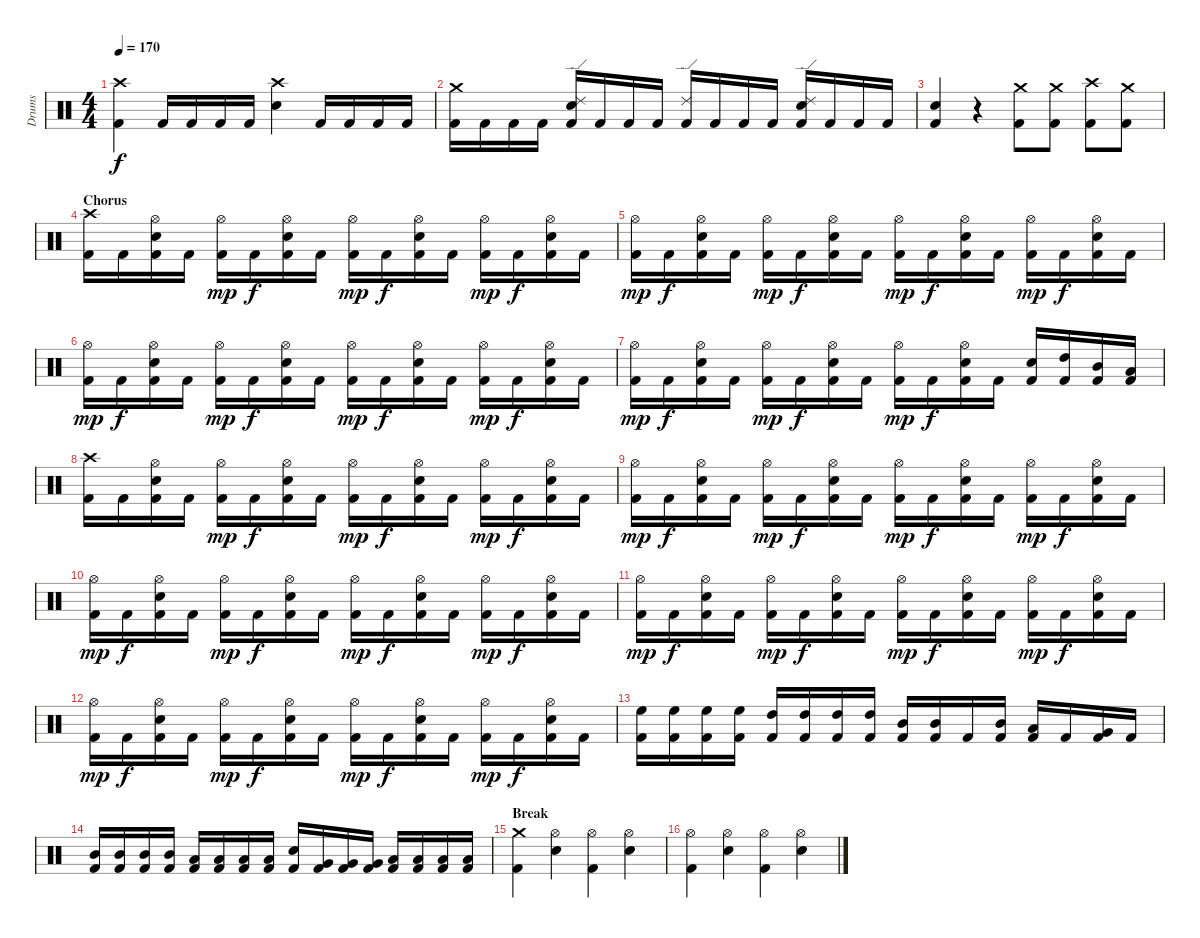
\track ("Drums" "Drums") {instrument percussion}
\staff {score}
\articulation defaults
\ts (4 4)
\tempo 170
\clef neutral
\ks c
("Kick (hit) 2" "Crash high (hit)").4{dy f} "Kick (hit) 2".16 "Kick (hit) 2".16 "Kick (hit) 2".16 "Kick (hit) 2".16 ("Electric Snare (hit)" "Crash high (hit)").4 "Kick (hit) 2".16 "Kick (hit) 2".16 "Kick (hit) 2".16 "Kick (hit) 2".16 |
("Kick (hit) 2" "Crash medium (hit)").16 "Kick (hit) 2".16 "Kick (hit) 2".16 "Kick (hit) 2".16 ("Kick (hit) 2" "Electric Snare (hit)" "Ride (edge) 2").16 "Kick (hit) 2".16 "Kick (hit) 2".16 "Kick (hit) 2".16 ("Kick (hit) 2" "Ride (edge) 2").16 "Kick (hit) 2".16 "Kick (hit) 2".16 "Kick (hit) 2".16 ("Kick (hit) 2" "Electric Snare (hit)" "Ride (edge) 2").16 "Kick (hit) 2".16 "Kick (hit) 2".16 "Kick (hit) 2".16 |
("Kick (hit) 2" "Electric Snare (hit)").4 r.4 ("Kick (hit) 2" "Crash medium (hit)").8 ("Kick (hit) 2" "Crash medium (hit)").8 ("Kick (hit) 2" "Crash high (hit)").8 ("Kick (hit) 2" "Crash medium (hit)").8 |
\section ("" "Chorus")
("Kick (hit) 2" "Crash high (hit)").16 "Kick (hit) 2".16 ("Kick (hit) 2" "Electric Snare (hit)" "Hi-Hat (open)").16 "Kick (hit) 2".16 ("Kick (hit) 2" "Hi-Hat (open)").16{dy mp} "Kick (hit) 2".16{dy f} ("Kick (hit) 2" "Electric Snare (hit)" "Hi-Hat (open)").16 "Kick (hit) 2".16 ("Kick (hit) 2" "Hi-Hat (open)").16{dy mp} "Kick (hit) 2".16{dy f} ("Kick (hit) 2" "Electric Snare (hit)" "Hi-Hat (open)").16 "Kick (hit) 2".16 ("Kick (hit) 2" "Hi-Hat (open)").16{dy mp} "Kick (hit) 2".16{dy f} ("Kick (hit) 2" "Electric Snare (hit)" "Hi-Hat (open)").16 "Kick (hit) 2".16 |
("Kick (hit) 2" "Hi-Hat (open)").16{dy mp} "Kick (hit) 2".16{dy f} ("Kick (hit) 2" "Electric Snare (hit)" "Hi-Hat (open)").16 "Kick (hit) 2".16 ("Kick (hit) 2" "Hi-Hat (open)").16{dy mp} "Kick (hit) 2".16{dy f} ("Kick (hit) 2" "Electric Snare (hit)" "Hi-Hat (open)").16 "Kick (hit) 2".16 ("Kick (hit) 2" "Hi-Hat (open)").16{dy mp} "Kick (hit) 2".16{dy f} ("Kick (hit) 2" "Electric Snare (hit)" "Hi-Hat (open)").16 "Kick (hit) 2".16 ("Kick (hit) 2" "Hi-Hat (open)").16{dy mp} "Kick (hit) 2".16{dy f} ("Kick (hit) 2" "Electric Snare (hit)" "Hi-Hat (open)").16 "Kick (hit) 2".16 |
("Kick (hit) 2" "Hi-Hat (open)").16{dy mp} "Kick (hit) 2".16{dy f} ("Kick (hit) 2" "Electric Snare (hit)" "Hi-Hat (open)").16 "Kick (hit) 2".16 ("Kick (hit) 2" "Hi-Hat (open)").16{dy mp} "Kick (hit) 2".16{dy f} ("Kick (hit) 2" "Electric Snare (hit)" "Hi-Hat (open)").16 "Kick (hit) 2".16 ("Kick (hit) 2" "Hi-Hat (open)").16{dy mp} "Kick (hit) 2".16{dy f} ("Kick (hit) 2" "Electric Snare (hit)" "Hi-Hat (open)").16 "Kick (hit) 2".16 ("Kick (hit) 2" "Hi-Hat (open)").16{dy mp} "Kick (hit) 2".16{dy f} ("Kick (hit) 2" "Electric Snare (hit)" "Hi-Hat (open)").16 "Kick (hit) 2".16 |
("Kick (hit) 2" "Hi-Hat (open)").16{dy mp} "Kick (hit) 2".16{dy f} ("Kick (hit) 2" "Electric Snare (hit)" "Hi-Hat (open)").16 "Kick (hit) 2".16 ("Kick (hit) 2" "Hi-Hat (open)").16{dy mp} "Kick (hit) 2".16{dy f} ("Kick (hit) 2" "Electric Snare (hit)" "Hi-Hat (open)").16 "Kick (hit) 2".16 ("Kick (hit) 2" "Hi-Hat (open)").16{dy mp} "Kick (hit) 2".16{dy f} ("Kick (hit) 2" "Electric Snare (hit)" "Hi-Hat (open)").16 "Kick (hit) 2".16 ("Kick (hit) 2" "Electric Snare (hit)").16 ("Kick (hit) 2" "High Tom (hit)").16 ("Kick (hit) 2" "Mid Tom (hit)").16 ("Kick (hit) 2" "Low Tom (hit)").16 |
("Kick (hit) 2" "Crash high (hit)").16 "Kick (hit) 2".16 ("Kick (hit) 2" "Electric Snare (hit)" "Hi-Hat (open)").16 "Kick (hit) 2".16 ("Kick (hit) 2" "Hi-Hat (open)").16{dy mp} "Kick (hit) 2".16{dy f} ("Kick (hit) 2" "Electric Snare (hit)" "Hi-Hat (open)").16 "Kick (hit) 2".16 ("Kick (hit) 2" "Hi-Hat (open)").16{dy mp} "Kick (hit) 2".16{dy f} ("Kick (hit) 2" "Electric Snare (hit)" "Hi-Hat (open)").16 "Kick (hit) 2".16 ("Kick (hit) 2" "Hi-Hat (open)").16{dy mp} "Kick (hit) 2".16{dy f} ("Kick (hit) 2" "Electric Snare (hit)" "Hi-Hat (open)").16 "Kick (hit) 2".16 |
("Kick (hit) 2" "Hi-Hat (open)").16{dy mp} "Kick (hit) 2".16{dy f} ("Kick (hit) 2" "Electric Snare (hit)" "Hi-Hat (open)").16 "Kick (hit) 2".16 ("Kick (hit) 2" "Hi-Hat (open)").16{dy mp} "Kick (hit) 2".16{dy f} ("Kick (hit) 2" "Electric Snare (hit)" "Hi-Hat (open)").16 "Kick (hit) 2".16 ("Kick (hit) 2" "Hi-Hat (open)").16{dy mp} "Kick (hit) 2".16{dy f} ("Kick (hit) 2" "Electric Snare (hit)" "Hi-Hat (open)").16 "Kick (hit) 2".16 ("Kick (hit) 2" "Hi-Hat (open)").16{dy mp} "Kick (hit) 2".16{dy f} ("Kick (hit) 2" "Electric Snare (hit)" "Hi-Hat (open)").16 "Kick (hit) 2".16 |
("Kick (hit) 2" "Hi-Hat (open)").16{dy mp} "Kick (hit) 2".16{dy f} ("Kick (hit) 2" "Electric Snare (hit)" "Hi-Hat (open)").16 "Kick (hit) 2".16 ("Kick (hit) 2" "Hi-Hat (open)").16{dy mp} "Kick (hit) 2".16{dy f} ("Kick (hit) 2" "Electric Snare (hit)" "Hi-Hat (open)").16 "Kick (hit) 2".16 ("Kick (hit) 2" "Hi-Hat (open)").16{dy mp} "Kick (hit) 2".16{dy f} ("Kick (hit) 2" "Electric Snare (hit)" "Hi-Hat (open)").16 "Kick (hit) 2".16 ("Kick (hit) 2" "Hi-Hat (open)").16{dy mp} "Kick (hit) 2".16{dy f} ("Kick (hit) 2" "Electric Snare (hit)" "Hi-Hat (open)").16 "Kick (hit) 2".16 |
("Kick (hit) 2" "Hi-Hat (open)").16{dy mp} "Kick (hit) 2".16{dy f} ("Kick (hit) 2" "Electric Snare (hit)" "Hi-Hat (open)").16 "Kick (hit) 2".16 ("Kick (hit) 2" "Hi-Hat (open)").16{dy mp} "Kick (hit) 2".16{dy f} ("Kick (hit) 2" "Electric Snare (hit)" "Hi-Hat (open)").16 "Kick (hit) 2".16 ("Kick (hit) 2" "Hi-Hat (open)").16{dy mp} "Kick (hit) 2".16{dy f} ("Kick (hit) 2" "Electric Snare (hit)" "Hi-Hat (open)").16 "Kick (hit) 2".16 ("Kick (hit) 2" "Hi-Hat (open)").16{dy mp} "Kick (hit) 2".16{dy f} ("Kick (hit) 2" "Electric Snare (hit)" "Hi-Hat (open)").16 "Kick (hit) 2".16 |
("Kick (hit) 2" "Hi-Hat (open)").16{dy mp} "Kick (hit) 2".16{dy f} ("Kick (hit) 2" "Electric Snare (hit)" "Hi-Hat (open)").16 "Kick (hit) 2".16 ("Kick (hit) 2" "Hi-Hat (open)").16{dy mp} "Kick (hit) 2".16{dy f} ("Kick (hit) 2" "Electric Snare (hit)" "Hi-Hat (open)").16 "Kick (hit) 2".16 ("Kick (hit) 2" "Hi-Hat (open)").16{dy mp} "Kick (hit) 2".16{dy f} ("Kick (hit) 2" "Electric Snare (hit)" "Hi-Hat (open)").16 "Kick (hit) 2".16 ("Kick (hit) 2" "Hi-Hat (open)").16{dy mp} "Kick (hit) 2".16{dy f} ("Kick (hit) 2" "Electric Snare (hit)" "Hi-Hat (open)").16 "Kick (hit) 2".16 |
("Kick (hit) 2" "High Floor Tom (hit)").16 ("Kick (hit) 2" "High Floor Tom (hit)").16 ("Kick (hit) 2" "High Floor Tom (hit)").16 ("Kick (hit) 2" "High Floor Tom (hit)").16 ("Kick (hit) 2" "High Tom (hit)").16 ("Kick (hit) 2" "High Tom (hit)").16 ("Kick (hit) 2" "High Tom (hit)").16 ("Kick (hit) 2" "High Tom (hit)").16 ("Kick (hit) 2" "Mid Tom (hit)").16 ("Kick (hit) 2" "Mid Tom (hit)").16 "Kick (hit) 2".16 ("Kick (hit) 2" "Mid Tom (hit)").16 ("Kick (hit) 2" "Low Tom (hit)").16 "Kick (hit) 2".16 ("Kick (hit) 2" "Very Low Tom (hit)").16 "Kick (hit) 2".16 |
("Kick (hit) 2" "Mid Tom (hit)").16 ("Kick (hit) 2" "Mid Tom (hit)").16 ("Kick (hit) 2" "Mid Tom (hit)").16 ("Kick (hit) 2" "Mid Tom (hit)").16 ("Kick (hit) 2" "Low Tom (hit)").16 ("Kick (hit) 2" "Low Tom (hit)").16 ("Kick (hit) 2" "Low Tom (hit)").16 ("Kick (hit) 2" "Low Tom (hit)").16 ("Kick (hit) 2" "Electric Snare (hit)").16 ("Kick (hit) 2" "Very Low Tom (hit)").16 ("Kick (hit) 2" "Very Low Tom (hit)").16 ("Kick (hit) 2" "Very Low Tom (hit)").16 ("Kick (hit) 2" "Low Floor Tom (hit)").16 ("Kick (hit) 2" "Low Floor Tom (hit)").16 ("Kick (hit) 2" "Low Floor Tom (hit)").16 ("Kick (hit) 2" "Low Floor Tom (hit)").16 |
\section ("" "Break")
("Kick (hit) 2" "Crash medium (hit)").4 ("Electric Snare (hit)" "Hi-Hat (open)").4 ("Kick (hit) 2" "Hi-Hat (open)").4 ("Electric Snare (hit)" "Hi-Hat (open)").4 |
("Kick (hit) 2" "Hi-Hat (open)").4 ("Electric Snare (hit)" "Hi-Hat (open)").4 ("Kick (hit) 2" "Hi-Hat (open)").4 ("Electric Snare (hit)" "Hi-Hat (open)").4
